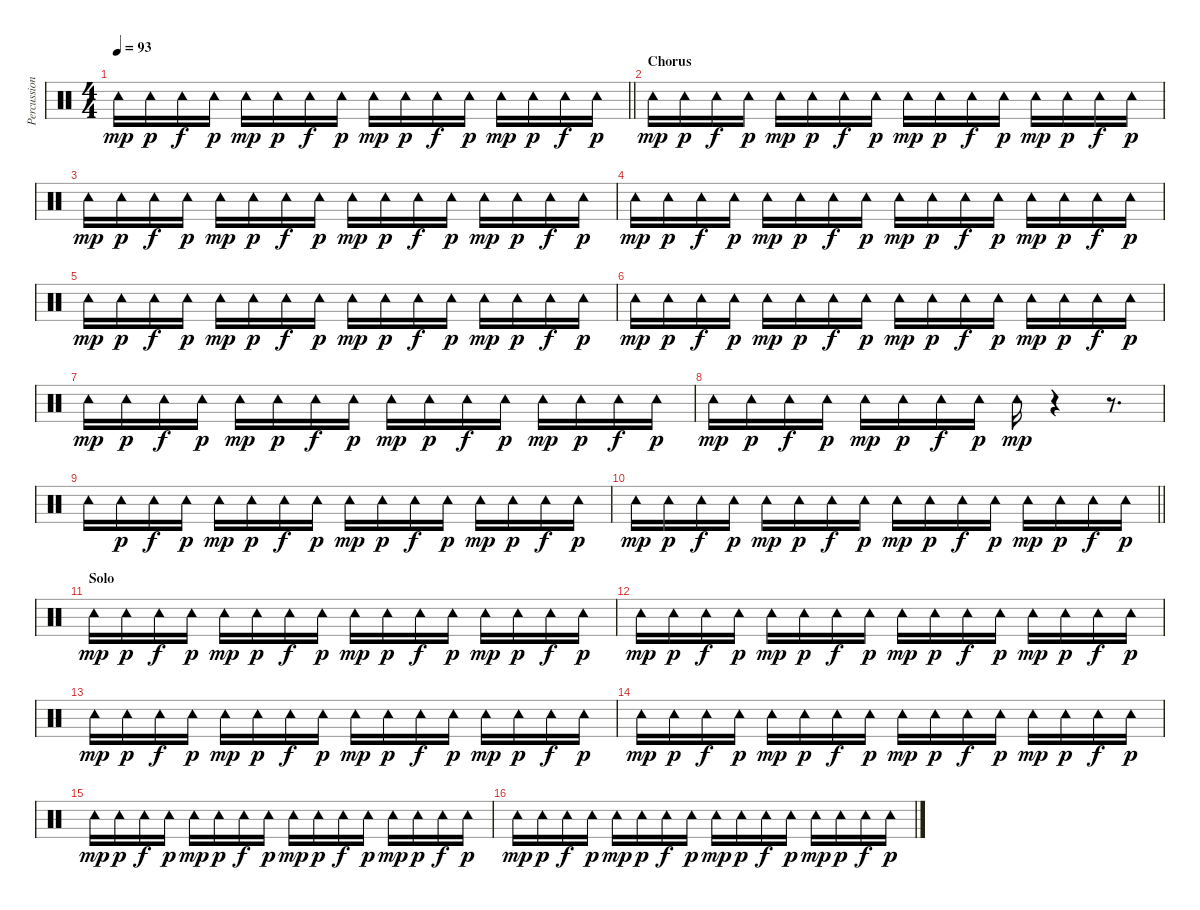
\track ("Percussion" "Percussion") {instrument percussion}
\staff {score}
\articulation defaults
\ts (4 4)
\tempo 93
\clef neutral
\barLineRight lightlight
\ks c "Tambourine (hit)".16{dy mp} "Tambourine (hit)".16{dy p} "Tambourine (hit)".16{dy f} "Tambourine (hit)".16{dy p} "Tambourine (hit)".16{dy mp} "Tambourine (hit)".16{dy p} "Tambourine (hit)".16{dy f} "Tambourine (hit)".16{dy p} "Tambourine (hit)".16{dy mp} "Tambourine (hit)".16{dy p} "Tambourine (hit)".16{dy f} "Tambourine (hit)".16{dy p} "Tambourine (hit)".16{dy mp} "Tambourine (hit)".16{dy p} "Tambourine (hit)".16{dy f} "Tambourine (hit)".16{dy p}
|
\section ("" "Chorus")
"Tambourine (hit)".16{dy mp} "Tambourine (hit)".16{dy p} "Tambourine (hit)".16{dy f} "Tambourine (hit)".16{dy p} "Tambourine (hit)".16{dy mp} "Tambourine (hit)".16{dy p} "Tambourine (hit)".16{dy f} "Tambourine (hit)".16{dy p} "Tambourine (hit)".16{dy mp} "Tambourine (hit)".16{dy p} "Tambourine (hit)".16{dy f} "Tambourine (hit)".16{dy p} "Tambourine (hit)".16{dy mp} "Tambourine (hit)".16{dy p} "Tambourine (hit)".16{dy f} "Tambourine (hit)".16{dy p} |
"Tambourine (hit)".16{dy mp} "Tambourine (hit)".16{dy p} "Tambourine (hit)".16{dy f} "Tambourine (hit)".16{dy p} "Tambourine (hit)".16{dy mp} "Tambourine (hit)".16{dy p} "Tambourine (hit)".16{dy f} "Tambourine (hit)".16{dy p} "Tambourine (hit)".16{dy mp} "Tambourine (hit)".16{dy p} "Tambourine (hit)".16{dy f} "Tambourine (hit)".16{dy p} "Tambourine (hit)".16{dy mp} "Tambourine (hit)".16{dy p} "Tambourine (hit)".16{dy f} "Tambourine (hit)".16{dy p} |
"Tambourine (hit)".16{dy mp} "Tambourine (hit)".16{dy p} "Tambourine (hit)".16{dy f} "Tambourine (hit)".16{dy p} "Tambourine (hit)".16{dy mp} "Tambourine (hit)".16{dy p} "Tambourine (hit)".16{dy f} "Tambourine (hit)".16{dy p} "Tambourine (hit)".16{dy mp} "Tambourine (hit)".16{dy p} "Tambourine (hit)".16{dy f} "Tambourine (hit)".16{dy p} "Tambourine (hit)".16{dy mp} "Tambourine (hit)".16{dy p} "Tambourine (hit)".16{dy f} "Tambourine (hit)".16{dy p} |
"Tambourine (hit)".16{dy mp} "Tambourine (hit)".16{dy p} "Tambourine (hit)".16{dy f} "Tambourine (hit)".16{dy p} "Tambourine (hit)".16{dy mp} "Tambourine (hit)".16{dy p} "Tambourine (hit)".16{dy f} "Tambourine (hit)".16{dy p} "Tambourine (hit)".16{dy mp} "Tambourine (hit)".16{dy p} "Tambourine (hit)".16{dy f} "Tambourine (hit)".16{dy p} "Tambourine (hit)".16{dy mp} "Tambourine (hit)".16{dy p} "Tambourine (hit)".16{dy f} "Tambourine (hit)".16{dy p} |
"Tambourine (hit)".16{dy mp} "Tambourine (hit)".16{dy p} "Tambourine (hit)".16{dy f} "Tambourine (hit)".16{dy p} "Tambourine (hit)".16{dy mp} "Tambourine (hit)".16{dy p} "Tambourine (hit)".16{dy f} "Tambourine (hit)".16{dy p} "Tambourine (hit)".16{dy mp} "Tambourine (hit)".16{dy p} "Tambourine (hit)".16{dy f} "Tambourine (hit)".16{dy p} "Tambourine (hit)".16{dy mp} "Tambourine (hit)".16{dy p} "Tambourine (hit)".16{dy f} "Tambourine (hit)".16{dy p} |
"Tambourine (hit)".16{dy mp} "Tambourine (hit)".16{dy p} "Tambourine (hit)".16{dy f} "Tambourine (hit)".16{dy p} "Tambourine (hit)".16{dy mp} "Tambourine (hit)".16{dy p} "Tambourine (hit)".16{dy f} "Tambourine (hit)".16{dy p} "Tambourine (hit)".16{dy mp} "Tambourine (hit)".16{dy p} "Tambourine (hit)".16{dy f} "Tambourine (hit)".16{dy p} "Tambourine (hit)".16{dy mp} "Tambourine (hit)".16{dy p} "Tambourine (hit)".16{dy f} "Tambourine (hit)".16{dy p} |
"Tambourine (hit)".16{dy mp} "Tambourine (hit)".16{dy p} "Tambourine (hit)".16{dy f} "Tambourine (hit)".16{dy p} "Tambourine (hit)".16{dy mp} "Tambourine (hit)".16{dy p} "Tambourine (hit)".16{dy f} "Tambourine (hit)".16{dy p} "Tambourine (hit)".16{dy mp} r.4 r.8{d} |
"Tambourine (hit)".16 "Tambourine (hit)".16{dy p} "Tambourine (hit)".16{dy f} "Tambourine (hit)".16{dy p} "Tambourine (hit)".16{dy mp} "Tambourine (hit)".16{dy p} "Tambourine (hit)".16{dy f} "Tambourine (hit)".16{dy p} "Tambourine (hit)".16{dy mp} "Tambourine (hit)".16{dy p} "Tambourine (hit)".16{dy f} "Tambourine (hit)".16{dy p} "Tambourine (hit)".16{dy mp} "Tambourine (hit)".16{dy p} "Tambourine (hit)".16{dy f} "Tambourine (hit)".16{dy p} |
\barLineRight lightlight "Tambourine (hit)".16{dy mp} "Tambourine (hit)".16{dy p} "Tambourine (hit)".16{dy f} "Tambourine (hit)".16{dy p} "Tambourine (hit)".16{dy mp} "Tambourine (hit)".16{dy p} "Tambourine (hit)".16{dy f} "Tambourine (hit)".16{dy p} "Tambourine (hit)".16{dy mp} "Tambourine (hit)".16{dy p} "Tambourine (hit)".16{dy f} "Tambourine (hit)".16{dy p} "Tambourine (hit)".16{dy mp} "Tambourine (hit)".16{dy p} "Tambourine (hit)".16{dy f} "Tambourine (hit)".16{dy p}
|
\section ("" "Solo")
"Tambourine (hit)".16{dy mp} "Tambourine (hit)".16{dy p} "Tambourine (hit)".16{dy f} "Tambourine (hit)".16{dy p} "Tambourine (hit)".16{dy mp} "Tambourine (hit)".16{dy p} "Tambourine (hit)".16{dy f} "Tambourine (hit)".16{dy p} "Tambourine (hit)".16{dy mp} "Tambourine (hit)".16{dy p} "Tambourine (hit)".16{dy f} "Tambourine (hit)".16{dy p} "Tambourine (hit)".16{dy mp} "Tambourine (hit)".16{dy p} "Tambourine (hit)".16{dy f} "Tambourine (hit)".16{dy p} |
"Tambourine (hit)".16{dy mp} "Tambourine (hit)".16{dy p} "Tambourine (hit)".16{dy f} "Tambourine (hit)".16{dy p} "Tambourine (hit)".16{dy mp} "Tambourine (hit)".16{dy p} "Tambourine (hit)".16{dy f} "Tambourine (hit)".16{dy p} "Tambourine (hit)".16{dy mp} "Tambourine (hit)".16{dy p} "Tambourine (hit)".16{dy f} "Tambourine (hit)".16{dy p} "Tambourine (hit)".16{dy mp} "Tambourine (hit)".16{dy p} "Tambourine (hit)".16{dy f} "Tambourine (hit)".16{dy p} |
"Tambourine (hit)".16{dy mp} "Tambourine (hit)".16{dy p} "Tambourine (hit)".16{dy f} "Tambourine (hit)".16{dy p} "Tambourine (hit)".16{dy mp} "Tambourine (hit)".16{dy p} "Tambourine (hit)".16{dy f} "Tambourine (hit)".16{dy p} "Tambourine (hit)".16{dy mp} "Tambourine (hit)".16{dy p} "Tambourine (hit)".16{dy f} "Tambourine (hit)".16{dy p} "Tambourine (hit)".16{dy mp} "Tambourine (hit)".16{dy p} "Tambourine (hit)".16{dy f} "Tambourine (hit)".16{dy p} |
"Tambourine (hit)".16{dy mp} "Tambourine (hit)".16{dy p} "Tambourine (hit)".16{dy f} "Tambourine (hit)".16{dy p} "Tambourine (hit)".16{dy mp} "Tambourine (hit)".16{dy p} "Tambourine (hit)".16{dy f} "Tambourine (hit)".16{dy p} "Tambourine (hit)".16{dy mp} "Tambourine (hit)".16{dy p} "Tambourine (hit)".16{dy f} "Tambourine (hit)".16{dy p} "Tambourine (hit)".16{dy mp} "Tambourine (hit)".16{dy p} "Tambourine (hit)".16{dy f} "Tambourine (hit)".16{dy p} |
"Tambourine (hit)".16{dy mp} "Tambourine (hit)".16{dy p} "Tambourine (hit)".16{dy f} "Tambourine (hit)".16{dy p} "Tambourine (hit)".16{dy mp} "Tambourine (hit)".16{dy p} "Tambourine (hit)".16{dy f} "Tambourine (hit)".16{dy p} "Tambourine (hit)".16{dy mp} "Tambourine (hit)".16{dy p} "Tambourine (hit)".16{dy f} "Tambourine (hit)".16{dy p} "Tambourine (hit)".16{dy mp} "Tambourine (hit)".16{dy p} "Tambourine (hit)".16{dy f} "Tambourine (hit)".16{dy p} |
"Tambourine (hit)".16{dy mp} "Tambourine (hit)".16{dy p} "Tambourine (hit)".16{dy f} "Tambourine (hit)".16{dy p} "Tambourine (hit)".16{dy mp} "Tambourine (hit)".16{dy p} "Tambourine (hit)".16{dy f} "Tambourine (hit)".16{dy p} "Tambourine (hit)".16{dy mp} "Tambourine (hit)".16{dy p} "Tambourine (hit)".16{dy f} "Tambourine (hit)".16{dy p} "Tambourine (hit)".16{dy mp} "Tambourine (hit)".16{dy p} "Tambourine (hit)".16{dy f} "Tambourine (hit)".16{dy p}
